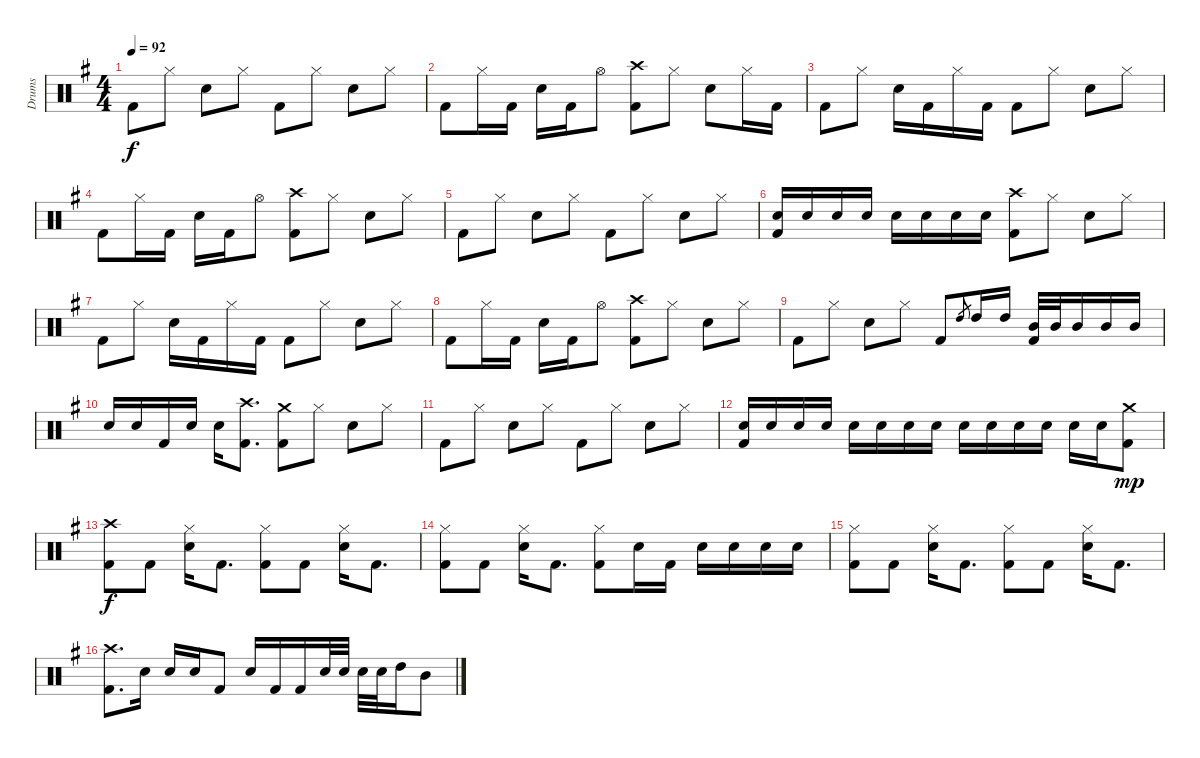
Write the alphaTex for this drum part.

\track ("Drums" "Drums") {instrument percussion}
\staff {score}
\articulation defaults
\ts (4 4)
\tempo 92
\clef neutral
\ks eminor "Kick (hit) 2".8{dy f} "Hi-Hat (closed)".8 "Snare (hit) 2".8 "Hi-Hat (closed)".8 "Kick (hit) 2".8 "Hi-Hat (closed)".8 "Snare (hit) 2".8 "Hi-Hat (closed)".8
|
"Kick (hit) 2".8 "Hi-Hat (closed)".16 "Kick (hit) 2".16 "Snare (hit) 2".16 "Kick (hit) 2".16 "Hi-Hat (open)".8 ("Crash high (hit)" "Kick (hit) 2").8 "Hi-Hat (closed)".8 "Snare (hit) 2".8 "Hi-Hat (closed)".16 "Kick (hit) 2".16 |
"Kick (hit) 2".8 "Hi-Hat (closed)".8 "Snare (hit) 2".16 "Kick (hit) 2".16 "Hi-Hat (closed)".16 "Kick (hit) 2".16 "Kick (hit) 2".8 "Hi-Hat (closed)".8 "Snare (hit) 2".8 "Hi-Hat (closed)".8 |
"Kick (hit) 2".8 "Hi-Hat (closed)".16 "Kick (hit) 2".16 "Snare (hit) 2".16 "Kick (hit) 2".16 "Hi-Hat (open)".8 ("Crash high (hit)" "Kick (hit) 2").8 "Hi-Hat (closed)".8 "Snare (hit) 2".8 "Hi-Hat (closed)".8 |
"Kick (hit) 2".8 "Hi-Hat (closed)".8 "Snare (hit) 2".8 "Hi-Hat (closed)".8 "Kick (hit) 2".8 "Hi-Hat (closed)".8 "Snare (hit) 2".8 "Hi-Hat (closed)".8 |
("Snare (hit) 2" "Kick (hit) 2").16 "Snare (hit) 2".16 "Snare (hit) 2".16 "Snare (hit) 2".16 "Snare (hit) 2".16 "Snare (hit) 2".16 "Snare (hit) 2".16 "Snare (hit) 2".16 ("Crash high (hit)" "Kick (hit) 2").8 "Hi-Hat (closed)".8 "Snare (hit) 2".8 "Hi-Hat (closed)".8 |
"Kick (hit) 2".8 "Hi-Hat (closed)".8 "Snare (hit) 2".16 "Kick (hit) 2".16 "Hi-Hat (closed)".16 "Kick (hit) 2".16 "Kick (hit) 2".8 "Hi-Hat (closed)".8 "Snare (hit) 2".8 "Hi-Hat (closed)".8 |
"Kick (hit) 2".8 "Hi-Hat (closed)".16 "Kick (hit) 2".16 "Snare (hit) 2".16 "Kick (hit) 2".16 "Hi-Hat (open)".8 ("Crash high (hit)" "Kick (hit) 2").8 "Hi-Hat (closed)".8 "Snare (hit) 2".8 "Hi-Hat (closed)".8 |
"Kick (hit) 2".8 "Hi-Hat (closed)".8 "Snare (hit) 2".8 "Hi-Hat (closed)".8 "Kick (hit) 2".8 "High Tom (hit)".8{gr} "High Tom (hit)".16 "High Tom (hit)".16 ("Mid Tom (hit)" "Kick (hit) 2").32 "Mid Tom (hit)".32 "Mid Tom (hit)".16 "Mid Tom (hit)".16 "Mid Tom (hit)".16 |
"Snare (hit) 2".16 "Snare (hit) 2".16 "Kick (hit) 2".16 "Snare (hit) 2".16 "Snare (hit) 2".16 ("Crash high (hit)" "Kick (hit) 2").8{d} ("Crash medium (hit)" "Kick (hit) 2").8 "Hi-Hat (closed)".8 "Snare (hit) 2".8 "Hi-Hat (closed)".8 |
"Kick (hit) 2".8 "Hi-Hat (closed)".8 "Snare (hit) 2".8 "Hi-Hat (closed)".8 "Kick (hit) 2".8 "Hi-Hat (closed)".8 "Snare (hit) 2".8 "Hi-Hat (closed)".8 |
("Snare (hit) 2" "Kick (hit) 2").16 "Snare (hit) 2".16 "Snare (hit) 2".16 "Snare (hit) 2".16 "Snare (hit) 2".16 "Snare (hit) 2".16 "Snare (hit) 2".16 "Snare (hit) 2".16 "Snare (hit) 2".16 "Snare (hit) 2".16 "Snare (hit) 2".16 "Snare (hit) 2".16 "Snare (hit) 2".16 "Snare (hit) 2".16 ("Crash medium (hit)" "Kick (hit) 2").8{dy mp} |
("Crash high (hit)" "Kick (hit) 2").8{dy f} "Kick (hit) 2".8 ("Hi-Hat (closed)" "Snare (hit) 2").16 "Kick (hit) 2".8{d} ("Hi-Hat (closed)" "Kick (hit) 2").8 "Kick (hit) 2".8 ("Hi-Hat (closed)" "Snare (hit) 2").16 "Kick (hit) 2".8{d} |
("Hi-Hat (closed)" "Kick (hit) 2").8 "Kick (hit) 2".8 ("Hi-Hat (closed)" "Snare (hit) 2").16 "Kick (hit) 2".8{d} ("Hi-Hat (closed)" "Kick (hit) 2").8 "Snare (hit) 2".16 "Kick (hit) 2".16 "Snare (hit) 2".16 "Snare (hit) 2".16 "Snare (hit) 2".16 "Snare (hit) 2".16 |
("Hi-Hat (closed)" "Kick (hit) 2").8 "Kick (hit) 2".8 ("Hi-Hat (closed)" "Snare (hit) 2").16 "Kick (hit) 2".8{d} ("Hi-Hat (closed)" "Kick (hit) 2").8 "Kick (hit) 2".8 ("Hi-Hat (closed)" "Snare (hit) 2").16 "Kick (hit) 2".8{d} |
("Crash high (hit)" "Kick (hit) 2").8{d} "Snare (hit) 2".16 "Snare (hit) 2".16 "Snare (hit) 2".16 "Kick (hit) 2".8 "Snare (hit) 2".16 "Kick (hit) 2".16 "Kick (hit) 2".16 "Snare (hit) 2".32 "Snare (hit) 2".32 "Snare (hit) 2".32 "Snare (hit) 2".32 "High Tom (hit)".16 "Mid Tom (hit)".8
